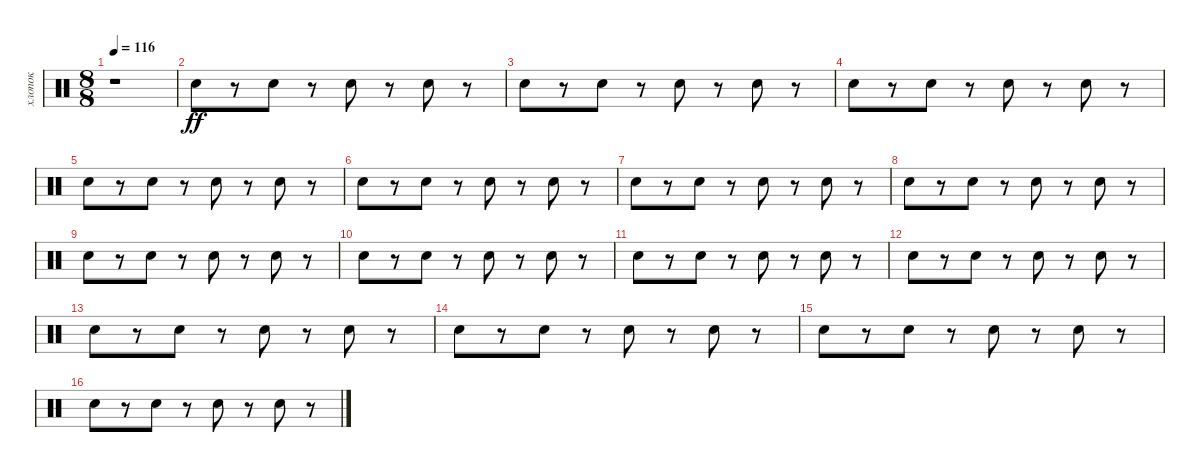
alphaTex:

\track ("хлопок" "хлопок") {instrument percussion}
\staff {score}
\articulation defaults
\ts (8 8)
\tempo 116
\clef neutral
\ks c
r.1{dy ff} |
"Hand Clap (hit)".8 r.8 "Hand Clap (hit)".8 r.8 "Hand Clap (hit)".8 r.8 "Hand Clap (hit)".8 r.8 |
"Hand Clap (hit)".8 r.8 "Hand Clap (hit)".8 r.8 "Hand Clap (hit)".8 r.8 "Hand Clap (hit)".8 r.8 |
"Hand Clap (hit)".8 r.8 "Hand Clap (hit)".8 r.8 "Hand Clap (hit)".8 r.8 "Hand Clap (hit)".8 r.8 |
"Hand Clap (hit)".8 r.8 "Hand Clap (hit)".8 r.8 "Hand Clap (hit)".8 r.8 "Hand Clap (hit)".8 r.8 |
"Hand Clap (hit)".8 r.8 "Hand Clap (hit)".8 r.8 "Hand Clap (hit)".8 r.8 "Hand Clap (hit)".8 r.8 |
"Hand Clap (hit)".8 r.8 "Hand Clap (hit)".8 r.8 "Hand Clap (hit)".8 r.8 "Hand Clap (hit)".8 r.8 |
"Hand Clap (hit)".8 r.8 "Hand Clap (hit)".8 r.8 "Hand Clap (hit)".8 r.8 "Hand Clap (hit)".8 r.8 |
"Hand Clap (hit)".8 r.8 "Hand Clap (hit)".8 r.8 "Hand Clap (hit)".8 r.8 "Hand Clap (hit)".8 r.8 |
"Hand Clap (hit)".8 r.8 "Hand Clap (hit)".8 r.8 "Hand Clap (hit)".8 r.8 "Hand Clap (hit)".8 r.8 |
"Hand Clap (hit)".8 r.8 "Hand Clap (hit)".8 r.8 "Hand Clap (hit)".8 r.8 "Hand Clap (hit)".8 r.8 |
"Hand Clap (hit)".8 r.8 "Hand Clap (hit)".8 r.8 "Hand Clap (hit)".8 r.8 "Hand Clap (hit)".8 r.8 |
"Hand Clap (hit)".8 r.8 "Hand Clap (hit)".8 r.8 "Hand Clap (hit)".8 r.8 "Hand Clap (hit)".8 r.8 |
"Hand Clap (hit)".8 r.8 "Hand Clap (hit)".8 r.8 "Hand Clap (hit)".8 r.8 "Hand Clap (hit)".8 r.8 |
"Hand Clap (hit)".8 r.8 "Hand Clap (hit)".8 r.8 "Hand Clap (hit)".8 r.8 "Hand Clap (hit)".8 r.8 |
"Hand Clap (hit)".8 r.8 "Hand Clap (hit)".8 r.8 "Hand Clap (hit)".8 r.8 "Hand Clap (hit)".8 r.8
